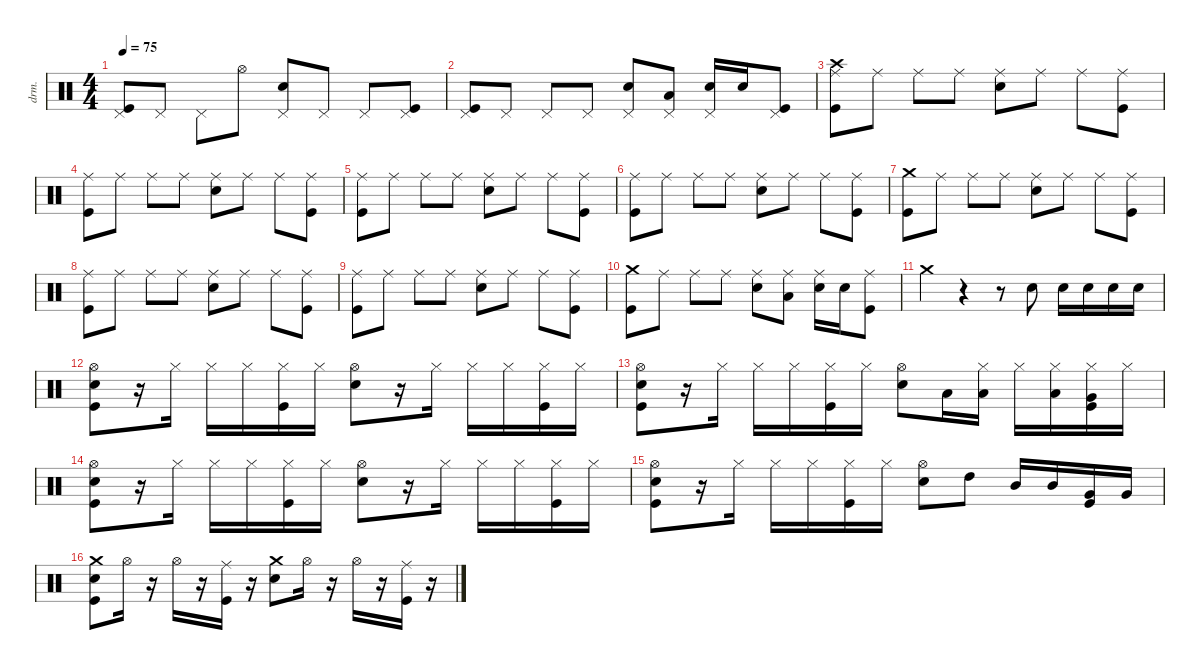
\defaultSystemsLayout 4
\hideDynamics
\bracketExtendMode nobrackets
\otherSystemsTrackNameOrientation horizontal
\track ("Drums" "drm.") {instrument percussion}
\staff {score}
\articulation defaults
\ts (4 4)
\tempo 75
\clef neutral
\ks c
("Pedal Hi-Hat (hit)" "Kick (hit)").8{dy f beam Up} "Pedal Hi-Hat (hit)".8{beam Up} "Pedal Hi-Hat (hit)".8{beam Down} "Hi-Hat (open)".8{beam Down} ("Snare (hit) 2" "Pedal Hi-Hat (hit)").8{beam Up} "Pedal Hi-Hat (hit)".8{beam Up} "Pedal Hi-Hat (hit)".8{beam Up} ("Kick (hit)" "Pedal Hi-Hat (hit)").8{beam Up} |
("Pedal Hi-Hat (hit)" "Kick (hit)").8{beam Up} "Pedal Hi-Hat (hit)".8{beam Up} "Pedal Hi-Hat (hit)".8{beam Up} "Pedal Hi-Hat (hit)".8{beam Up} ("Snare (hit) 2" "Pedal Hi-Hat (hit)").8{beam Up} ("Low Floor Tom (hit)" "Pedal Hi-Hat (hit)").8{beam Up} ("Snare (hit) 2" "Pedal Hi-Hat (hit)").16{beam Up} "Snare (hit) 2".16{beam Up} ("Kick (hit)" "Pedal Hi-Hat (hit)").8{beam Up} |
("Crash high (hit)" "Kick (hit)" "Ride (middle)").8{beam Down} "Ride (middle)".8{beam Down} "Ride (middle)".8{beam Down} "Ride (middle)".8{beam Down} ("Snare (hit) 2" "Ride (middle)").8{beam Down} "Ride (middle)".8{beam Down} "Ride (middle)".8{beam Down} ("Kick (hit)" "Ride (middle)").8{beam Down} |
("Ride (middle)" "Kick (hit)").8{beam Down} "Ride (middle)".8{beam Down} "Ride (middle)".8{beam Down} "Ride (middle)".8{beam Down} ("Snare (hit) 2" "Ride (middle)").8{beam Down} "Ride (middle)".8{beam Down} "Ride (middle)".8{beam Down} ("Kick (hit)" "Ride (middle)").8{beam Down} |
("Ride (middle)" "Kick (hit)").8{beam Down} "Ride (middle)".8{beam Down} "Ride (middle)".8{beam Down} "Ride (middle)".8{beam Down} ("Snare (hit) 2" "Ride (middle)").8{beam Down} "Ride (middle)".8{beam Down} "Ride (middle)".8{beam Down} ("Kick (hit)" "Ride (middle)").8{beam Down} |
("Ride (middle)" "Kick (hit)").8{beam Down} "Ride (middle)".8{beam Down} "Ride (middle)".8{beam Down} "Ride (middle)".8{beam Down} ("Snare (hit) 2" "Ride (middle)").8{beam Down} "Ride (middle)".8{beam Down} "Ride (middle)".8{beam Down} ("Kick (hit)" "Ride (middle)").8{beam Down} |
("Crash medium (hit)" "Kick (hit)").8{beam Down} "Ride (middle)".8{beam Down} "Ride (middle)".8{beam Down} "Ride (middle)".8{beam Down} ("Snare (hit) 2" "Ride (middle)").8{beam Down} "Ride (middle)".8{beam Down} "Ride (middle)".8{beam Down} ("Kick (hit)" "Ride (middle)").8{beam Down} |
("Ride (middle)" "Kick (hit)").8{beam Down} "Ride (middle)".8{beam Down} "Ride (middle)".8{beam Down} "Ride (middle)".8{beam Down} ("Snare (hit) 2" "Ride (middle)").8{beam Down} "Ride (middle)".8{beam Down} "Ride (middle)".8{beam Down} ("Kick (hit)" "Ride (middle)").8{beam Down} |
("Ride (middle)" "Kick (hit)").8{beam Down} "Ride (middle)".8{beam Down} "Ride (middle)".8{beam Down} "Ride (middle)".8{beam Down} ("Snare (hit) 2" "Ride (middle)").8{beam Down} "Ride (middle)".8{beam Down} "Ride (middle)".8{beam Down} ("Kick (hit)" "Ride (middle)").8{beam Down} |
("Crash medium (hit)" "Kick (hit)").8{beam Down} "Ride (middle)".8{beam Down} "Ride (middle)".8{beam Down} "Ride (middle)".8{beam Down} ("Snare (hit) 2" "Ride (middle)").8{beam Down} ("Low Floor Tom (hit)" "Ride (middle)").8{beam Down} ("Snare (hit) 2" "Ride (middle)").16{beam Down} "Snare (hit) 2".16{beam Down} ("Kick (hit)" "Ride (middle)").8{beam Down} |
"Crash medium (hit)".4{beam Down} r.4{beam Down} r.8{beam Down} "Snare (hit) 2".8{beam Down} "Snare (hit) 2".16{beam Down} "Snare (hit) 2".16{beam Down} "Snare (hit) 2".16{beam Down} "Snare (hit) 2".16{beam Down} |
("Hi-Hat (open)" "Kick (hit)" "Snare (hit) 2").8{beam Down} r.16{beam Down} "Hi-Hat (closed)".16{beam Down} "Hi-Hat (closed)".16{beam Down} "Hi-Hat (closed)".16{beam Down} ("Kick (hit)" "Hi-Hat (closed)").16{beam Down} "Hi-Hat (closed)".16{beam Down} ("Snare (hit) 2" "Hi-Hat (open)").8{beam Down} r.16{beam Down} "Hi-Hat (closed)".16{beam Down} "Hi-Hat (closed)".16{beam Down} "Hi-Hat (closed)".16{beam Down} ("Kick (hit)" "Hi-Hat (closed)").16{beam Down} "Hi-Hat (closed)".16{beam Down} |
("Hi-Hat (open)" "Kick (hit)" "Snare (hit) 2").8{beam Down} r.16{beam Down} "Hi-Hat (closed)".16{beam Down} "Hi-Hat (closed)".16{beam Down} "Hi-Hat (closed)".16{beam Down} ("Kick (hit)" "Hi-Hat (closed)").16{beam Down} "Hi-Hat (closed)".16{beam Down} ("Snare (hit) 2" "Hi-Hat (open)").8{beam Down} "Low Tom (hit)".16{beam Down} ("Low Tom (hit)" "Hi-Hat (closed)").16{beam Down} "Hi-Hat (closed)".16{beam Down} ("Low Tom (hit)" "Hi-Hat (closed)").16{beam Down} ("Very Low Tom (hit)" "Kick (hit)" "Hi-Hat (closed)").16{beam Down} "Hi-Hat (closed)".16{beam Down} |
("Hi-Hat (open)" "Kick (hit)" "Snare (hit) 2").8{beam Down} r.16{beam Down} "Hi-Hat (closed)".16{beam Down} "Hi-Hat (closed)".16{beam Down} "Hi-Hat (closed)".16{beam Down} ("Kick (hit)" "Hi-Hat (closed)").16{beam Down} "Hi-Hat (closed)".16{beam Down} ("Snare (hit) 2" "Hi-Hat (open)").8{beam Down} r.16{beam Down} "Hi-Hat (closed)".16{beam Down} "Hi-Hat (closed)".16{beam Down} "Hi-Hat (closed)".16{beam Down} ("Kick (hit)" "Hi-Hat (closed)").16{beam Down} "Hi-Hat (closed)".16{beam Down} |
("Hi-Hat (open)" "Kick (hit)" "Snare (hit) 2").8{beam Down} r.16{beam Down} "Hi-Hat (closed)".16{beam Down} "Hi-Hat (closed)".16{beam Down} "Hi-Hat (closed)".16{beam Down} ("Kick (hit)" "Hi-Hat (closed)").16{beam Down} "Hi-Hat (closed)".16{beam Down} ("Snare (hit) 2" "Hi-Hat (open)").8{beam Down} "High Tom (hit)".8{beam Down} "Mid Tom (hit)".16{beam Up} "Mid Tom (hit)".16{beam Up} ("Very Low Tom (hit)" "Kick (hit)").16{beam Up} "Very Low Tom (hit)".16{beam Up} |
("Crash medium (hit)" "Kick (hit)" "Snare (hit) 2").8{beam Down} "Hi-Hat (open)".16{beam Down} r.16{beam Down} "Hi-Hat (open)".16{beam Down} r.16{beam Down} ("Kick (hit)" "Ride (middle)").16{beam Down} r.16{beam Down} ("Snare (hit) 2" "Crash medium (hit)").8{beam Down} "Hi-Hat (open)".16{beam Down} r.16{beam Down} "Hi-Hat (open)".16{beam Down} r.16{beam Down} ("Kick (hit)" "Ride (middle)").16{beam Down} r.16{beam Down}
